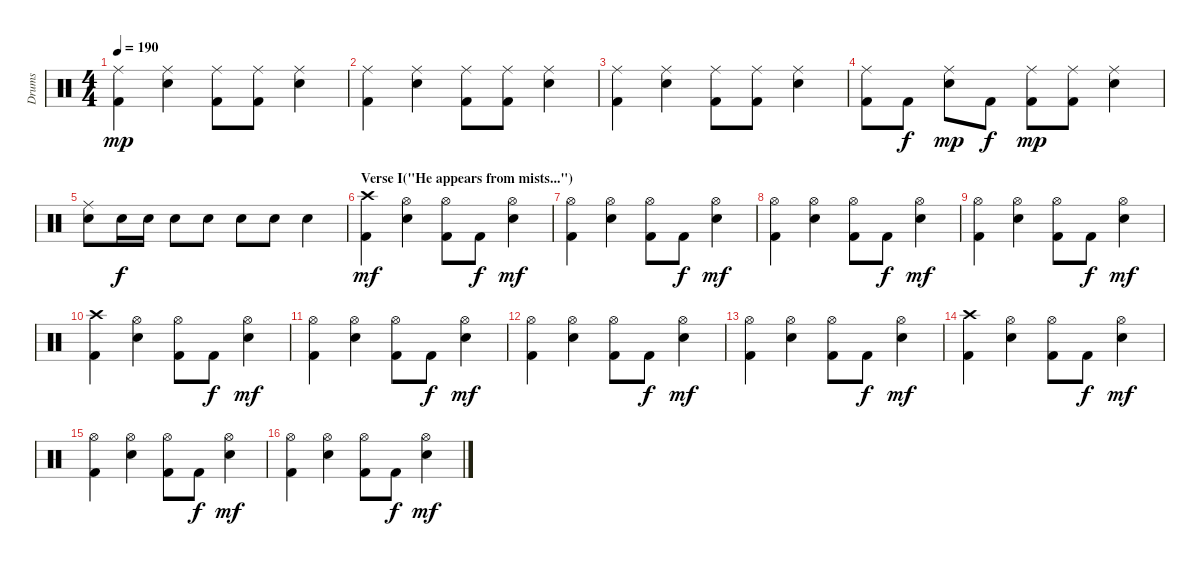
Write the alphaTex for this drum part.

\track ("Drums" "Drums") {instrument percussion}
\staff {score}
\articulation defaults
\ts (4 4)
\tempo 190
\clef neutral
\ks c
("Ride (middle)" "Kick (hit) 2").4{dy mp} ("Ride (middle)" "Snare (hit) 2").4 ("Ride (middle)" "Kick (hit) 2").8 ("Ride (middle)" "Kick (hit) 2").8 ("Ride (middle)" "Snare (hit) 2").4 |
("Ride (middle)" "Kick (hit) 2").4 ("Ride (middle)" "Snare (hit) 2").4 ("Ride (middle)" "Kick (hit) 2").8 ("Ride (middle)" "Kick (hit) 2").8 ("Ride (middle)" "Snare (hit) 2").4 |
("Ride (middle)" "Kick (hit) 2").4 ("Ride (middle)" "Snare (hit) 2").4 ("Ride (middle)" "Kick (hit) 2").8 ("Ride (middle)" "Kick (hit) 2").8 ("Ride (middle)" "Snare (hit) 2").4 |
("Ride (middle)" "Kick (hit) 2").8 "Kick (hit) 2".8{dy f} ("Ride (middle)" "Snare (hit) 2").8{dy mp} "Kick (hit) 2".8{dy f} ("Ride (middle)" "Kick (hit) 2").8{dy mp} ("Ride (middle)" "Kick (hit) 2").8 ("Ride (middle)" "Snare (hit) 2").4 |
("Ride (middle)" "Snare (hit) 2").8 "Snare (hit) 2".16{dy f} "Snare (hit) 2".16 "Snare (hit) 2".8 "Snare (hit) 2".8 "Snare (hit) 2".8 "Snare (hit) 2".8 "Snare (hit) 2".4 |
\section ("" "Verse I(\"He appears from mists...\")")
("Crash high (hit)" "Kick (hit) 2").4{dy mf} ("Hi-Hat (open)" "Snare (hit) 2").4 ("Hi-Hat (open)" "Kick (hit) 2").8 "Kick (hit) 2".8{dy f} ("Hi-Hat (open)" "Snare (hit) 2").4{dy mf} |
("Hi-Hat (open)" "Kick (hit) 2").4 ("Hi-Hat (open)" "Snare (hit) 2").4 ("Hi-Hat (open)" "Kick (hit) 2").8 "Kick (hit) 2".8{dy f} ("Hi-Hat (open)" "Snare (hit) 2").4{dy mf} |
("Hi-Hat (open)" "Kick (hit) 2").4 ("Hi-Hat (open)" "Snare (hit) 2").4 ("Hi-Hat (open)" "Kick (hit) 2").8 "Kick (hit) 2".8{dy f} ("Hi-Hat (open)" "Snare (hit) 2").4{dy mf} |
("Hi-Hat (open)" "Kick (hit) 2").4 ("Hi-Hat (open)" "Snare (hit) 2").4 ("Hi-Hat (open)" "Kick (hit) 2").8 "Kick (hit) 2".8{dy f} ("Hi-Hat (open)" "Snare (hit) 2").4{dy mf} |
("Crash high (hit)" "Kick (hit) 2").4 ("Hi-Hat (open)" "Snare (hit) 2").4 ("Hi-Hat (open)" "Kick (hit) 2").8 "Kick (hit) 2".8{dy f} ("Hi-Hat (open)" "Snare (hit) 2").4{dy mf} |
("Hi-Hat (open)" "Kick (hit) 2").4 ("Hi-Hat (open)" "Snare (hit) 2").4 ("Hi-Hat (open)" "Kick (hit) 2").8 "Kick (hit) 2".8{dy f} ("Hi-Hat (open)" "Snare (hit) 2").4{dy mf} |
("Hi-Hat (open)" "Kick (hit) 2").4 ("Hi-Hat (open)" "Snare (hit) 2").4 ("Hi-Hat (open)" "Kick (hit) 2").8 "Kick (hit) 2".8{dy f} ("Hi-Hat (open)" "Snare (hit) 2").4{dy mf} |
("Hi-Hat (open)" "Kick (hit) 2").4 ("Hi-Hat (open)" "Snare (hit) 2").4 ("Hi-Hat (open)" "Kick (hit) 2").8 "Kick (hit) 2".8{dy f} ("Hi-Hat (open)" "Snare (hit) 2").4{dy mf} |
("Crash high (hit)" "Kick (hit) 2").4 ("Hi-Hat (open)" "Snare (hit) 2").4 ("Hi-Hat (open)" "Kick (hit) 2").8 "Kick (hit) 2".8{dy f} ("Hi-Hat (open)" "Snare (hit) 2").4{dy mf} |
("Hi-Hat (open)" "Kick (hit) 2").4 ("Hi-Hat (open)" "Snare (hit) 2").4 ("Hi-Hat (open)" "Kick (hit) 2").8 "Kick (hit) 2".8{dy f} ("Hi-Hat (open)" "Snare (hit) 2").4{dy mf} |
("Hi-Hat (open)" "Kick (hit) 2").4 ("Hi-Hat (open)" "Snare (hit) 2").4 ("Hi-Hat (open)" "Kick (hit) 2").8 "Kick (hit) 2".8{dy f} ("Hi-Hat (open)" "Snare (hit) 2").4{dy mf}
